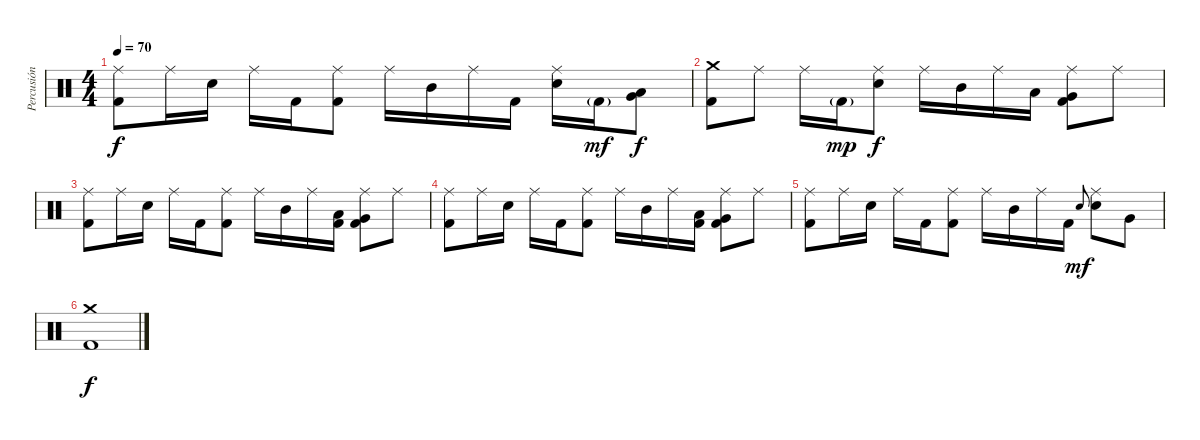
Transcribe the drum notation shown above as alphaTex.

\track ("Percusión" "Percusión") {instrument percussion}
\staff {score}
\articulation defaults
\ts (4 4)
\tempo 70
\clef neutral
\ks c
("Ride (middle)" "Kick (hit) 2").8{dy f} "Ride (middle)".16 "Electric Snare (hit)".16 "Ride (middle)".16 "Kick (hit) 2".16 ("Ride (middle)" "Kick (hit) 2").8 "Ride (middle)".16 "Mid Tom (hit)".16 "Ride (middle)".16 "Kick (hit) 2".16 ("Ride (middle)" "Electric Snare (hit)").16 "Kick (hit) 2"{g}.16{dy mf} ("Low Tom (hit)" "Very Low Tom (hit)").8{dy f} |
("Crash medium (hit)" "Kick (hit) 2").8 "Ride (middle)".8 "Ride (middle)".16 "Kick (hit) 2"{g}.16{dy mp} ("Ride (middle)" "Electric Snare (hit)").8{dy f} "Ride (middle)".16 "Mid Tom (hit)".16 "Ride (middle)".16 "Low Tom (hit)".16 ("Ride (middle)" "Very Low Tom (hit)" "Kick (hit) 2").8 "Ride (middle)".8 |
("Ride (middle)" "Kick (hit) 2").8 "Ride (middle)".16 "Electric Snare (hit)".16 "Ride (middle)".16 "Kick (hit) 2".16 ("Ride (middle)" "Kick (hit) 2").8 "Ride (middle)".16 "Mid Tom (hit)".16 "Ride (middle)".16 ("Low Tom (hit)" "Kick (hit) 2").16 ("Ride (middle)" "Very Low Tom (hit)" "Kick (hit) 2").8 "Ride (middle)".8 |
("Ride (middle)" "Kick (hit) 2").8 "Ride (middle)".16 "Electric Snare (hit)".16 "Ride (middle)".16 "Kick (hit) 2".16 ("Ride (middle)" "Kick (hit) 2").8 "Ride (middle)".16 "Mid Tom (hit)".16 "Ride (middle)".16 ("Low Tom (hit)" "Kick (hit) 2").16 ("Ride (middle)" "Very Low Tom (hit)" "Kick (hit) 2").8 "Ride (middle)".8 |
("Ride (middle)" "Kick (hit) 2").8 "Ride (middle)".16 "Electric Snare (hit)".16 "Ride (middle)".16 "Kick (hit) 2".16 ("Ride (middle)" "Kick (hit) 2").8 "Ride (middle)".16 "Mid Tom (hit)".16 "Ride (middle)".16 "Kick (hit) 2".16 "Electric Snare (hit)".8{gr onbeat dy mf} ("Ride (middle)" "Electric Snare (hit)").8 "Very Low Tom (hit)".8 |
("Crash medium (hit)" "Kick (hit) 2").1{dy f}
